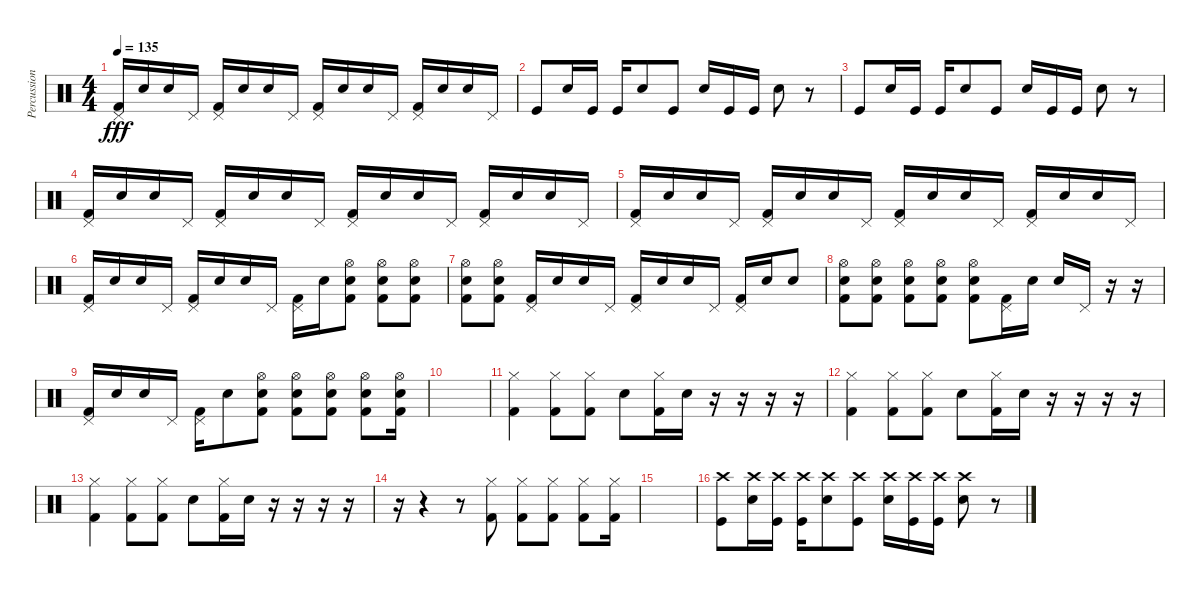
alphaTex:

\track ("Percussion" "Percussion") {instrument percussion}
\staff {score}
\articulation defaults
\ts (4 4)
\tempo 135
\clef neutral
\ks c
("Pedal Hi-Hat (hit)" "Kick (hit) 2").16{dy fff} "Snare (hit) 2".16 "Snare (hit) 2".16 "Pedal Hi-Hat (hit)".16 ("Pedal Hi-Hat (hit)" "Kick (hit) 2").16 "Snare (hit) 2".16 "Snare (hit) 2".16 "Pedal Hi-Hat (hit)".16 ("Pedal Hi-Hat (hit)" "Kick (hit) 2").16 "Snare (hit) 2".16 "Snare (hit) 2".16 "Pedal Hi-Hat (hit)".16 ("Pedal Hi-Hat (hit)" "Kick (hit) 2").16 "Snare (hit) 2".16 "Snare (hit) 2".16 "Pedal Hi-Hat (hit)".16 |
"Kick (hit)".8 "Snare (hit) 2".16 "Kick (hit)".16 "Kick (hit)".16 "Snare (hit) 2".8 "Kick (hit)".8 "Snare (hit) 2".16 "Kick (hit)".16 "Kick (hit)".16 "Snare (hit) 2".8 r.8 |
"Kick (hit)".8 "Snare (hit) 2".16 "Kick (hit)".16 "Kick (hit)".16 "Snare (hit) 2".8 "Kick (hit)".8 "Snare (hit) 2".16 "Kick (hit)".16 "Kick (hit)".16 "Snare (hit) 2".8 r.8 |
("Pedal Hi-Hat (hit)" "Kick (hit) 2").16 "Snare (hit) 2".16 "Snare (hit) 2".16 "Pedal Hi-Hat (hit)".16 ("Pedal Hi-Hat (hit)" "Kick (hit) 2").16 "Snare (hit) 2".16 "Snare (hit) 2".16 "Pedal Hi-Hat (hit)".16 ("Pedal Hi-Hat (hit)" "Kick (hit) 2").16 "Snare (hit) 2".16 "Snare (hit) 2".16 "Pedal Hi-Hat (hit)".16 ("Pedal Hi-Hat (hit)" "Kick (hit) 2").16 "Snare (hit) 2".16 "Snare (hit) 2".16 "Pedal Hi-Hat (hit)".16 |
("Pedal Hi-Hat (hit)" "Kick (hit) 2").16 "Snare (hit) 2".16 "Snare (hit) 2".16 "Pedal Hi-Hat (hit)".16 ("Pedal Hi-Hat (hit)" "Kick (hit) 2").16 "Snare (hit) 2".16 "Snare (hit) 2".16 "Pedal Hi-Hat (hit)".16 ("Pedal Hi-Hat (hit)" "Kick (hit) 2").16 "Snare (hit) 2".16 "Snare (hit) 2".16 "Pedal Hi-Hat (hit)".16 ("Pedal Hi-Hat (hit)" "Kick (hit) 2").16 "Snare (hit) 2".16 "Snare (hit) 2".16 "Pedal Hi-Hat (hit)".16 |
("Pedal Hi-Hat (hit)" "Kick (hit) 2").16 "Snare (hit) 2".16 "Snare (hit) 2".16 "Pedal Hi-Hat (hit)".16 ("Pedal Hi-Hat (hit)" "Kick (hit) 2").16 "Snare (hit) 2".16 "Snare (hit) 2".16 "Pedal Hi-Hat (hit)".16 ("Pedal Hi-Hat (hit)" "Kick (hit) 2").16 "Snare (hit) 2".16 ("Hi-Hat (open)" "Snare (hit) 2" "Kick (hit) 2").8 ("Hi-Hat (open)" "Snare (hit) 2" "Kick (hit) 2").8 ("Hi-Hat (open)" "Snare (hit) 2" "Kick (hit) 2").8 |
("Hi-Hat (open)" "Snare (hit) 2" "Kick (hit) 2").8 ("Hi-Hat (open)" "Snare (hit) 2" "Kick (hit) 2").8 ("Pedal Hi-Hat (hit)" "Kick (hit) 2").16 "Snare (hit) 2".16 "Snare (hit) 2".16 "Pedal Hi-Hat (hit)".16 ("Pedal Hi-Hat (hit)" "Kick (hit) 2").16 "Snare (hit) 2".16 "Snare (hit) 2".16 "Pedal Hi-Hat (hit)".16 ("Pedal Hi-Hat (hit)" "Kick (hit) 2").16 "Snare (hit) 2".16 "Snare (hit) 2".8 |
("Hi-Hat (open)" "Snare (hit) 2" "Kick (hit) 2").8 ("Hi-Hat (open)" "Snare (hit) 2" "Kick (hit) 2").8 ("Hi-Hat (open)" "Snare (hit) 2" "Kick (hit) 2").8 ("Hi-Hat (open)" "Snare (hit) 2" "Kick (hit) 2").8 ("Hi-Hat (open)" "Snare (hit) 2" "Kick (hit) 2").8 ("Pedal Hi-Hat (hit)" "Kick (hit) 2").16 "Snare (hit) 2".16 "Snare (hit) 2".16 "Pedal Hi-Hat (hit)".16 r.16 r.16 |
("Pedal Hi-Hat (hit)" "Kick (hit) 2").16 "Snare (hit) 2".16 "Snare (hit) 2".16 "Pedal Hi-Hat (hit)".16 ("Pedal Hi-Hat (hit)" "Kick (hit) 2").16 "Snare (hit) 2".8 ("Hi-Hat (open)" "Snare (hit) 2" "Kick (hit) 2").8 ("Hi-Hat (open)" "Snare (hit) 2" "Kick (hit) 2").8 ("Hi-Hat (open)" "Snare (hit) 2" "Kick (hit) 2").8 ("Hi-Hat (open)" "Snare (hit) 2" "Kick (hit) 2").8 ("Hi-Hat (open)" "Snare (hit) 2" "Kick (hit) 2").16 |
|
("Hi-Hat (closed)" "Kick (hit) 2").4 ("Hi-Hat (closed)" "Kick (hit) 2").8 ("Hi-Hat (closed)" "Kick (hit) 2").8 "Snare (hit) 2".8 ("Hi-Hat (closed)" "Kick (hit) 2").16 "Snare (hit) 2".16 r.16 r.16 r.16 r.16 |
("Hi-Hat (closed)" "Kick (hit) 2").4 ("Hi-Hat (closed)" "Kick (hit) 2").8 ("Hi-Hat (closed)" "Kick (hit) 2").8 "Snare (hit) 2".8 ("Hi-Hat (closed)" "Kick (hit) 2").16 "Snare (hit) 2".16 r.16 r.16 r.16 r.16 |
("Hi-Hat (closed)" "Kick (hit) 2").4 ("Hi-Hat (closed)" "Kick (hit) 2").8 ("Hi-Hat (closed)" "Kick (hit) 2").8 "Snare (hit) 2".8 ("Hi-Hat (closed)" "Kick (hit) 2").16 "Snare (hit) 2".16 r.16 r.16 r.16 r.16 |
r.16 r.4 r.8 ("Hi-Hat (closed)" "Kick (hit) 2").8 ("Hi-Hat (closed)" "Kick (hit) 2").8 ("Hi-Hat (closed)" "Kick (hit) 2").8 ("Hi-Hat (closed)" "Kick (hit) 2").8 ("Hi-Hat (closed)" "Kick (hit) 2").16 |
|
("Crash high (hit)" "Kick (hit)").8 ("Crash high (hit)" "Snare (hit) 2").16 ("Crash high (hit)" "Kick (hit)").16 ("Crash high (hit)" "Kick (hit)").16 ("Crash high (hit)" "Snare (hit) 2").8 ("Crash high (hit)" "Kick (hit)").8 ("Crash high (hit)" "Snare (hit) 2").16 ("Crash high (hit)" "Kick (hit)").16 ("Crash high (hit)" "Kick (hit)").16 ("Crash high (hit)" "Snare (hit) 2").8 r.8
